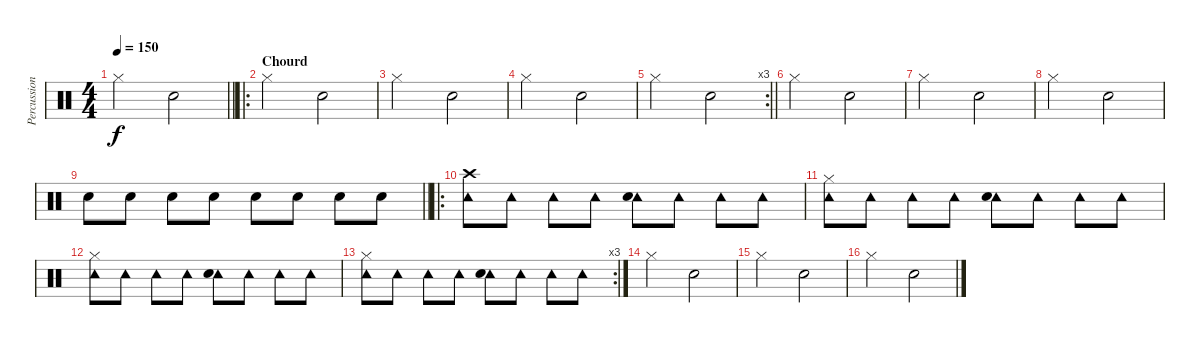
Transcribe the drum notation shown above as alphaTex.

\track ("Percussioni" "Percussion") {instrument percussion}
\staff {score}
\articulation defaults
\ts (4 4)
\tempo 150
\clef neutral
\barLineRight lightlight
\ks c "Hi-Hat (closed)".2{dy f} "Snare (hit) 2".2
|
\ro
\section ("" "Chourd")
"Hi-Hat (closed)".2 "Snare (hit) 2".2 |
"Hi-Hat (closed)".2 "Snare (hit) 2".2 |
"Hi-Hat (closed)".2 "Snare (hit) 2".2 |
\rc 3
\barLineRight lightlight "Hi-Hat (closed)".2 "Snare (hit) 2".2
|
"Hi-Hat (closed)".2 "Snare (hit) 2".2 |
"Hi-Hat (closed)".2 "Snare (hit) 2".2 |
"Hi-Hat (closed)".2 "Snare (hit) 2".2 |
\barLineRight lightlight "Snare (hit) 2".8 "Snare (hit) 2".8 "Snare (hit) 2".8 "Snare (hit) 2".8 "Snare (hit) 2".8 "Snare (hit) 2".8 "Snare (hit) 2".8 "Snare (hit) 2".8
|
\ro
("Tambourine (hit)" "Crash high (hit)").8 "Tambourine (hit)".8 "Tambourine (hit)".8 "Tambourine (hit)".8 ("Tambourine (hit)" "Snare (hit) 2").8 "Tambourine (hit)".8 "Tambourine (hit)".8 "Tambourine (hit)".8 |
("Tambourine (hit)" "Hi-Hat (closed)").8 "Tambourine (hit)".8 "Tambourine (hit)".8 "Tambourine (hit)".8 ("Tambourine (hit)" "Snare (hit) 2").8 "Tambourine (hit)".8 "Tambourine (hit)".8 "Tambourine (hit)".8 |
("Tambourine (hit)" "Hi-Hat (closed)").8 "Tambourine (hit)".8 "Tambourine (hit)".8 "Tambourine (hit)".8 ("Tambourine (hit)" "Snare (hit) 2").8 "Tambourine (hit)".8 "Tambourine (hit)".8 "Tambourine (hit)".8 |
\rc 3
("Tambourine (hit)" "Hi-Hat (closed)").8 "Tambourine (hit)".8 "Tambourine (hit)".8 "Tambourine (hit)".8 ("Tambourine (hit)" "Snare (hit) 2").8 "Tambourine (hit)".8 "Tambourine (hit)".8 "Tambourine (hit)".8 |
"Hi-Hat (closed)".2 "Snare (hit) 2".2 |
"Hi-Hat (closed)".2 "Snare (hit) 2".2 |
"Hi-Hat (closed)".2 "Snare (hit) 2".2
